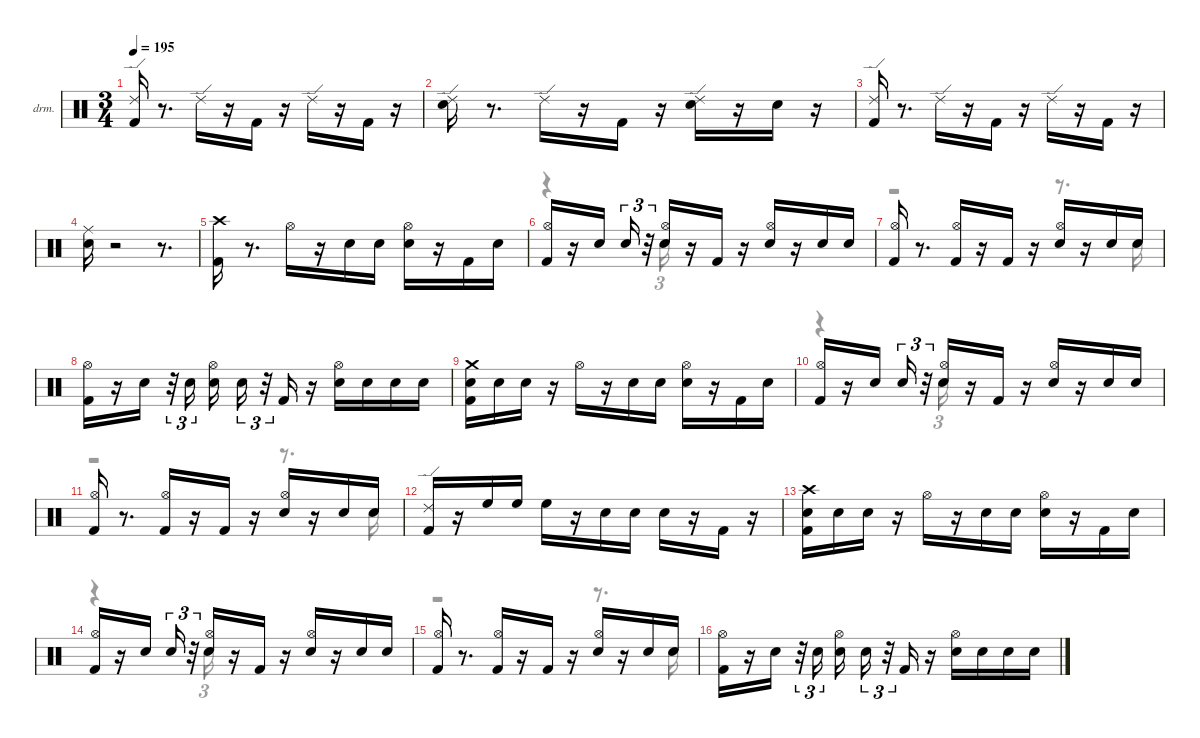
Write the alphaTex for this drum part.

\hideDynamics
\bracketExtendMode nobrackets
\firstSystemTrackNameOrientation horizontal
\otherSystemsTrackNameOrientation horizontal
\track ("EZdrummer 3" "drm.") {instrument percussion}
\staff {score}
\articulation defaults
\voice
\ts (3 4)
\tempo 195
\clef neutral
\ks aminor
("Kick (hit) 2" "Ride (edge) 2").16{dy ff beam Up} r.8{d beam Up} "Ride (edge) 2".16{dy p beam Down} r.16{beam Down} "Kick (hit) 2".16{dy ff beam Up} r.16{beam Up} "Ride (edge) 2".16{dy mf beam Down} r.16{beam Down} "Kick (hit) 2".16{dy ff beam Up} r.16{beam Up} |
("Snare (hit) 2" "Ride (edge) 2").16{beam Down} r.8{d beam Down} "Ride (edge) 2".16{dy p beam Down} r.16{beam Down} "Kick (hit) 2".16{dy ff beam Up} r.16{beam Up} ("Snare (hit) 2" "Ride (edge) 2").16{beam Down} r.16{beam Down} "Snare (hit) 2".16{dy ppp beam Down} r.16{beam Down} |
("Kick (hit) 2" "Ride (edge) 2").16{dy ff beam Up} r.8{d beam Up} "Ride (edge) 2".16{dy p beam Down} r.16{beam Down} "Kick (hit) 2".16{dy ff beam Up} r.16{beam Up} "Ride (edge) 2".16{dy fff beam Down} r.16{beam Down} "Kick (hit) 2".16{dy ff beam Up} r.16{beam Up} |
("Snare (hit) 2" "Ride (middle)"{acc #}).16{dy fff beam Down} r.2{beam Down} r.8{d beam Down} |
("Kick (hit) 2" "Crash high (hit)"{acc #}).16{beam Down} r.8{d beam Down} "Hi-Hat (open)"{acc #}.16{dy mp beam Down} r.16{beam Down} "Snare (hit) 2".16{dy ff beam Down} "Snare (hit) 2".16{dy pp beam Down} ("Snare (hit) 2" "Hi-Hat (open)"{acc #}).16{dy mf beam Down} r.16{beam Down} "Kick (hit) 2".16{dy p beam Up} "Snare (hit) 2".16{dy ppp beam Up} |
("Kick (hit) 2" "Hi-Hat (open)"{acc #}).16{dy fff beam Up} r.16{beam Up} "Snare (hit) 2".16{dy ff beam Up} "Snare (hit) 2".16{tu (3 2) dy pp beam Up} r.32{tu (3 2) beam Up} ("Snare (hit) 2" "Hi-Hat (open)"{acc #}).16{dy ppp beam Up} r.16{beam Up} "Kick (hit) 2".16{dy f beam Up} r.16{beam Up} ("Snare (hit) 2" "Hi-Hat (open)"{acc #}).16{dy ff beam Up} r.16{beam Up} "Snare (hit) 2".16{dy f beam Up} "Snare (hit) 2".16{dy ppp beam Up} |
("Kick (hit) 2" "Hi-Hat (open)"{acc #}).16{dy fff beam Up} r.8{d beam Up} ("Kick (hit) 2" "Hi-Hat (open)"{acc #}).16{dy mp beam Up} r.16{beam Up} "Kick (hit) 2".16{dy ff beam Up} r.16{beam Up} ("Snare (hit) 2" "Hi-Hat (open)"{acc #}).16{beam Up} r.16{beam Up} "Snare (hit) 2".16{dy pp beam Up} "Snare (hit) 2".16{dy ppp beam Up} |
("Kick (hit) 2" "Hi-Hat (open)"{acc #}).16{dy ff beam Down} r.16{beam Down} "Snare (hit) 2".16{dy fff beam Down} r.32{tu (3 2) beam Down} "Snare (hit) 2".16{tu (3 2) dy pp beam Down} ("Snare (hit) 2" "Hi-Hat (open)"{acc #}).16{dy ppp beam Down} "Snare (hit) 2".16{tu (3 2) beam Down} r.32{tu (3 2) beam Down} "Kick (hit) 2".16{dy f beam Up} r.16{beam Up} ("Snare (hit) 2" "Hi-Hat (open)"{acc #}).16{dy mf beam Down} "Snare (hit) 2".16{dy ppp beam Down} "Snare (hit) 2".16{beam Down} "Snare (hit) 2".16{beam Down} |
("Kick (hit) 2" "Snare (hit) 2" "Crash medium (hit)").16{dy fff beam Down} "Snare (hit) 2".16{dy pp beam Down} "Snare (hit) 2".16{dy ppp beam Down} r.16{beam Down} "Hi-Hat (open)"{acc #}.16{dy mp beam Down} r.16{beam Down} "Snare (hit) 2".16{dy ff beam Down} "Snare (hit) 2".16{dy pp beam Down} ("Snare (hit) 2" "Hi-Hat (open)"{acc #}).16{dy ppp beam Down} r.16{beam Down} "Kick (hit) 2".16{dy p beam Up} "Snare (hit) 2".16{dy ppp beam Up} |
("Kick (hit) 2" "Hi-Hat (open)"{acc #}).16{dy ff beam Up} r.16{beam Up} "Snare (hit) 2".16{beam Up} "Snare (hit) 2".16{tu (3 2) dy pp beam Up} r.32{tu (3 2) beam Up} ("Snare (hit) 2" "Hi-Hat (open)"{acc #}).16{dy ppp beam Up} r.16{beam Up} "Kick (hit) 2".16{dy f beam Up} r.16{beam Up} ("Snare (hit) 2" "Hi-Hat (open)"{acc #}).16{dy mf beam Up} r.16{beam Up} "Snare (hit) 2".16{dy f beam Up} "Snare (hit) 2".16{dy ppp beam Up} |
("Kick (hit) 2" "Hi-Hat (open)"{acc #}).16{dy fff beam Up} r.8{d beam Up} ("Kick (hit) 2" "Hi-Hat (open)"{acc #}).16{dy mf beam Up} r.16{beam Up} "Kick (hit) 2".16{dy ff beam Up} r.16{beam Up} ("Snare (hit) 2" "Hi-Hat (open)"{acc #}).16{beam Up} r.16{beam Up} "Snare (hit) 2".16{dy pp beam Up} "Snare (hit) 2".16{dy ppp beam Up} |
("Kick (hit) 2" "Ride (edge) 2").16{dy ff beam Up} r.16{beam Up} "High Floor Tom (hit)".16{beam Down} "High Floor Tom (hit)".16{dy mf beam Down} "High Floor Tom (hit)".16{dy ff beam Down} r.16{beam Down} "Snare (hit) 2".16{dy f beam Down} "Snare (hit) 2".16{dy p beam Down} "Snare (hit) 2".16{dy ff beam Down} r.16{beam Down} "Kick (hit) 2".16{dy mp beam Up} r.16{beam Up} |
("Crash high (hit)"{acc #} "Kick (hit) 2" "Snare (hit) 2").16{dy fff beam Down} "Snare (hit) 2".16{dy pp beam Down} "Snare (hit) 2".16{dy ppp beam Down} r.16{beam Down} "Hi-Hat (open)"{acc #}.16{dy mp beam Down} r.16{beam Down} "Snare (hit) 2".16{dy ff beam Down} "Snare (hit) 2".16{dy pp beam Down} ("Snare (hit) 2" "Hi-Hat (open)"{acc #}).16{dy ppp beam Down} r.16{beam Down} "Kick (hit) 2".16{dy p beam Up} "Snare (hit) 2".16{dy ppp beam Up} |
("Kick (hit) 2" "Hi-Hat (open)"{acc #}).16{dy ff beam Up} r.16{beam Up} "Snare (hit) 2".16{beam Up} "Snare (hit) 2".16{tu (3 2) dy pp beam Up} r.32{tu (3 2) beam Up} ("Snare (hit) 2" "Hi-Hat (open)"{acc #}).16{dy ppp beam Up} r.16{beam Up} "Kick (hit) 2".16{dy f beam Up} r.16{beam Up} ("Snare (hit) 2" "Hi-Hat (open)"{acc #}).16{dy ff beam Up} r.16{beam Up} "Snare (hit) 2".16{dy f beam Up} "Snare (hit) 2".16{dy ppp beam Up} |
("Kick (hit) 2" "Hi-Hat (open)"{acc #}).16{dy fff beam Up} r.8{d beam Up} ("Kick (hit) 2" "Hi-Hat (open)"{acc #}).16{dy mp beam Up} r.16{beam Up} "Kick (hit) 2".16{dy ff beam Up} r.16{beam Up} ("Snare (hit) 2" "Hi-Hat (open)"{acc #}).16{beam Up} r.16{beam Up} "Snare (hit) 2".16{dy pp beam Up} "Snare (hit) 2".16{dy ppp beam Up} |
("Kick (hit) 2" "Hi-Hat (open)"{acc #}).16{dy fff beam Down} r.16{beam Down} "Snare (hit) 2".16{beam Down} r.32{tu (3 2) beam Down} "Snare (hit) 2".16{tu (3 2) dy pp beam Down} ("Snare (hit) 2" "Hi-Hat (open)"{acc #}).16{dy mp beam Down} "Snare (hit) 2".16{tu (3 2) dy ppp beam Down} r.32{tu (3 2) beam Down} "Kick (hit) 2".16{dy f beam Up} r.16{beam Up} ("Snare (hit) 2" "Hi-Hat (open)"{acc #}).16{dy mf beam Down} "Snare (hit) 2".16{dy ppp beam Down} "Snare (hit) 2".16{beam Down} "Snare (hit) 2".16{beam Down}
\voice
\clef neutral
\ottava regular
\simile none
\ks aminor
|
|
|
|
|
r.4{beam Down} "Snare (hit) 2".16{tu (3 2) dy ppp beam Down} |
r.2{beam Down} r.8{d beam Down} "Snare (hit) 2".16{beam Down} |
|
|
r.4{beam Down} "Snare (hit) 2".16{tu (3 2) beam Down} |
r.2{beam Down} r.8{d beam Down} "Snare (hit) 2".16{beam Down} |
|
|
r.4{beam Down} "Snare (hit) 2".16{tu (3 2) beam Down} |
r.2{beam Down} r.8{d beam Down} "Snare (hit) 2".16{beam Down} |
